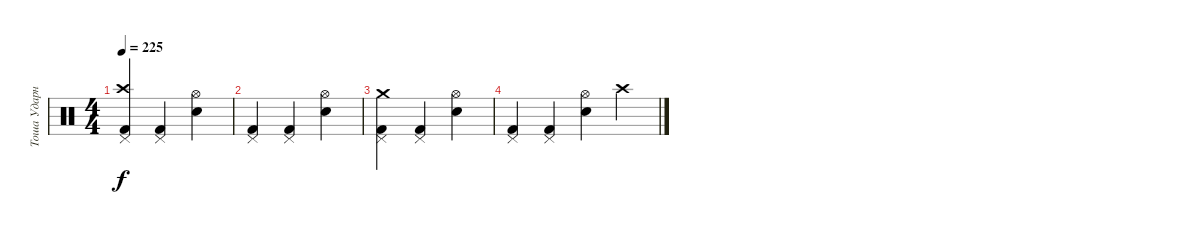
\track ("Тоша Ударные" "Тоша Ударн") {instrument percussion}
\staff {score}
\articulation defaults
\ts (4 4)
\tempo 225
\clef neutral
\ks c
("Pedal Hi-Hat (hit)" "Crash high (hit)" "Kick (hit) 2").4{dy f} ("Pedal Hi-Hat (hit)" "Kick (hit) 2").4 ("Hi-Hat (open)" "Electric Snare (hit)").4 |
("Pedal Hi-Hat (hit)" "Kick (hit) 2").4 ("Pedal Hi-Hat (hit)" "Kick (hit) 2").4 ("Hi-Hat (open)" "Electric Snare (hit)").4 |
("Pedal Hi-Hat (hit)" "Crash medium (hit)" "Kick (hit) 2").4 ("Pedal Hi-Hat (hit)" "Kick (hit) 2").4 ("Hi-Hat (open)" "Electric Snare (hit)").4 |
("Pedal Hi-Hat (hit)" "Kick (hit) 2").4 ("Pedal Hi-Hat (hit)" "Kick (hit) 2").4 ("Hi-Hat (open)" "Electric Snare (hit)").4 "Crash high (hit)".4
